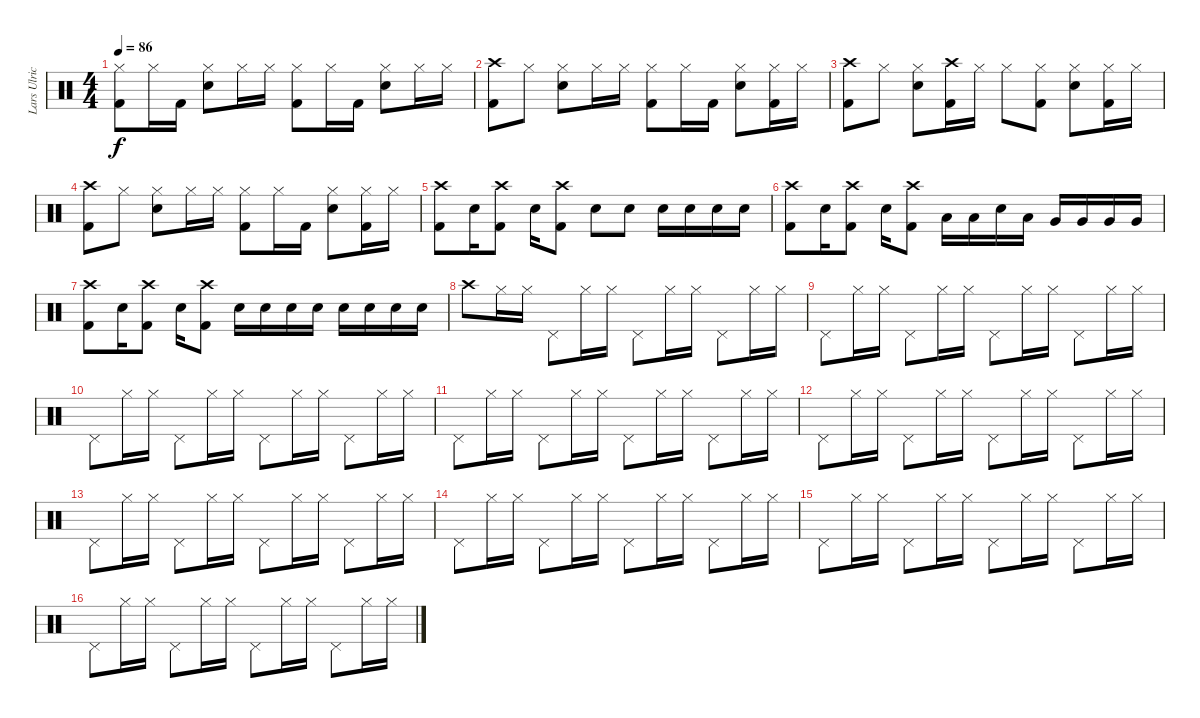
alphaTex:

\track ("Lars Ulrich" "Lars Ulric") {instrument percussion}
\staff {score}
\articulation defaults
\ts (4 4)
\tempo 86
\clef neutral
\ks c
("Hi-Hat (closed)" "Kick (hit) 2").8{dy f} "Hi-Hat (closed)".16 "Kick (hit) 2".16 ("Hi-Hat (closed)" "Electric Snare (hit)").8 "Hi-Hat (closed)".16 "Hi-Hat (closed)".16 ("Hi-Hat (closed)" "Kick (hit) 2").8 "Hi-Hat (closed)".16 "Kick (hit) 2".16 ("Hi-Hat (closed)" "Electric Snare (hit)").8 "Hi-Hat (closed)".16 "Hi-Hat (closed)".16 |
("Crash high (hit)" "Kick (hit) 2").8 "Hi-Hat (closed)".8 ("Hi-Hat (closed)" "Electric Snare (hit)").8 "Hi-Hat (closed)".16 "Hi-Hat (closed)".16 ("Hi-Hat (closed)" "Kick (hit) 2").8 "Hi-Hat (closed)".16 "Kick (hit) 2".16 ("Hi-Hat (closed)" "Electric Snare (hit)").8 ("Hi-Hat (closed)" "Kick (hit) 2").16 "Hi-Hat (closed)".16 |
("Crash high (hit)" "Kick (hit) 2").8 "Hi-Hat (closed)".8 ("Hi-Hat (closed)" "Electric Snare (hit)").8 ("Crash high (hit)" "Kick (hit) 2").16 "Hi-Hat (closed)".16 "Hi-Hat (closed)".8 ("Hi-Hat (closed)" "Kick (hit) 2").8 ("Hi-Hat (closed)" "Electric Snare (hit)").8 ("Hi-Hat (closed)" "Kick (hit) 2").16 "Hi-Hat (closed)".16 |
("Crash high (hit)" "Kick (hit) 2").8 "Hi-Hat (closed)".8 ("Hi-Hat (closed)" "Electric Snare (hit)").8 "Hi-Hat (closed)".16 "Hi-Hat (closed)".16 ("Hi-Hat (closed)" "Kick (hit) 2").8 "Hi-Hat (closed)".16 "Kick (hit) 2".16 ("Hi-Hat (closed)" "Electric Snare (hit)").8 ("Hi-Hat (closed)" "Kick (hit) 2").16 "Hi-Hat (closed)".16 |
("Crash high (hit)" "Kick (hit) 2").8 "Electric Snare (hit)".16 ("Crash high (hit)" "Kick (hit) 2").8 "Electric Snare (hit)".16 ("Crash high (hit)" "Kick (hit) 2").8 "Electric Snare (hit)".8 "Electric Snare (hit)".8 "Electric Snare (hit)".16 "Electric Snare (hit)".16 "Electric Snare (hit)".16 "Electric Snare (hit)".16 |
("Crash high (hit)" "Kick (hit) 2").8 "Electric Snare (hit)".16 ("Crash high (hit)" "Kick (hit) 2").8 "Electric Snare (hit)".16 ("Crash high (hit)" "Kick (hit) 2").8 "Low Tom (hit)".16 "Low Tom (hit)".16 "Electric Snare (hit)".16 "Low Tom (hit)".16 "Very Low Tom (hit)".16 "Very Low Tom (hit)".16 "Very Low Tom (hit)".16 "Very Low Tom (hit)".16 |
("Crash high (hit)" "Kick (hit) 2").8 "Electric Snare (hit)".16 ("Crash high (hit)" "Kick (hit) 2").8 "Electric Snare (hit)".16 ("Crash high (hit)" "Kick (hit) 2").8 "Electric Snare (hit)".16 "Electric Snare (hit)".16 "Electric Snare (hit)".16 "Electric Snare (hit)".16 "Electric Snare (hit)".16 "Electric Snare (hit)".16 "Electric Snare (hit)".16 "Electric Snare (hit)".16 |
"Crash high (hit)".8 "Hi-Hat (closed)".16 "Hi-Hat (closed)".16 "Pedal Hi-Hat (hit)".8 "Hi-Hat (closed)".16 "Hi-Hat (closed)".16 "Pedal Hi-Hat (hit)".8 "Hi-Hat (closed)".16 "Hi-Hat (closed)".16 "Pedal Hi-Hat (hit)".8 "Hi-Hat (closed)".16 "Hi-Hat (closed)".16 |
"Pedal Hi-Hat (hit)".8 "Hi-Hat (closed)".16 "Hi-Hat (closed)".16 "Pedal Hi-Hat (hit)".8 "Hi-Hat (closed)".16 "Hi-Hat (closed)".16 "Pedal Hi-Hat (hit)".8 "Hi-Hat (closed)".16 "Hi-Hat (closed)".16 "Pedal Hi-Hat (hit)".8 "Hi-Hat (closed)".16 "Hi-Hat (closed)".16 |
"Pedal Hi-Hat (hit)".8 "Hi-Hat (closed)".16 "Hi-Hat (closed)".16 "Pedal Hi-Hat (hit)".8 "Hi-Hat (closed)".16 "Hi-Hat (closed)".16 "Pedal Hi-Hat (hit)".8 "Hi-Hat (closed)".16 "Hi-Hat (closed)".16 "Pedal Hi-Hat (hit)".8 "Hi-Hat (closed)".16 "Hi-Hat (closed)".16 |
"Pedal Hi-Hat (hit)".8 "Hi-Hat (closed)".16 "Hi-Hat (closed)".16 "Pedal Hi-Hat (hit)".8 "Hi-Hat (closed)".16 "Hi-Hat (closed)".16 "Pedal Hi-Hat (hit)".8 "Hi-Hat (closed)".16 "Hi-Hat (closed)".16 "Pedal Hi-Hat (hit)".8 "Hi-Hat (closed)".16 "Hi-Hat (closed)".16 |
"Pedal Hi-Hat (hit)".8 "Hi-Hat (closed)".16 "Hi-Hat (closed)".16 "Pedal Hi-Hat (hit)".8 "Hi-Hat (closed)".16 "Hi-Hat (closed)".16 "Pedal Hi-Hat (hit)".8 "Hi-Hat (closed)".16 "Hi-Hat (closed)".16 "Pedal Hi-Hat (hit)".8 "Hi-Hat (closed)".16 "Hi-Hat (closed)".16 |
"Pedal Hi-Hat (hit)".8 "Hi-Hat (closed)".16 "Hi-Hat (closed)".16 "Pedal Hi-Hat (hit)".8 "Hi-Hat (closed)".16 "Hi-Hat (closed)".16 "Pedal Hi-Hat (hit)".8 "Hi-Hat (closed)".16 "Hi-Hat (closed)".16 "Pedal Hi-Hat (hit)".8 "Hi-Hat (closed)".16 "Hi-Hat (closed)".16 |
"Pedal Hi-Hat (hit)".8 "Hi-Hat (closed)".16 "Hi-Hat (closed)".16 "Pedal Hi-Hat (hit)".8 "Hi-Hat (closed)".16 "Hi-Hat (closed)".16 "Pedal Hi-Hat (hit)".8 "Hi-Hat (closed)".16 "Hi-Hat (closed)".16 "Pedal Hi-Hat (hit)".8 "Hi-Hat (closed)".16 "Hi-Hat (closed)".16 |
"Pedal Hi-Hat (hit)".8 "Hi-Hat (closed)".16 "Hi-Hat (closed)".16 "Pedal Hi-Hat (hit)".8 "Hi-Hat (closed)".16 "Hi-Hat (closed)".16 "Pedal Hi-Hat (hit)".8 "Hi-Hat (closed)".16 "Hi-Hat (closed)".16 "Pedal Hi-Hat (hit)".8 "Hi-Hat (closed)".16 "Hi-Hat (closed)".16 |
"Pedal Hi-Hat (hit)".8 "Hi-Hat (closed)".16 "Hi-Hat (closed)".16 "Pedal Hi-Hat (hit)".8 "Hi-Hat (closed)".16 "Hi-Hat (closed)".16 "Pedal Hi-Hat (hit)".8 "Hi-Hat (closed)".16 "Hi-Hat (closed)".16 "Pedal Hi-Hat (hit)".8 "Hi-Hat (closed)".16 "Hi-Hat (closed)".16
